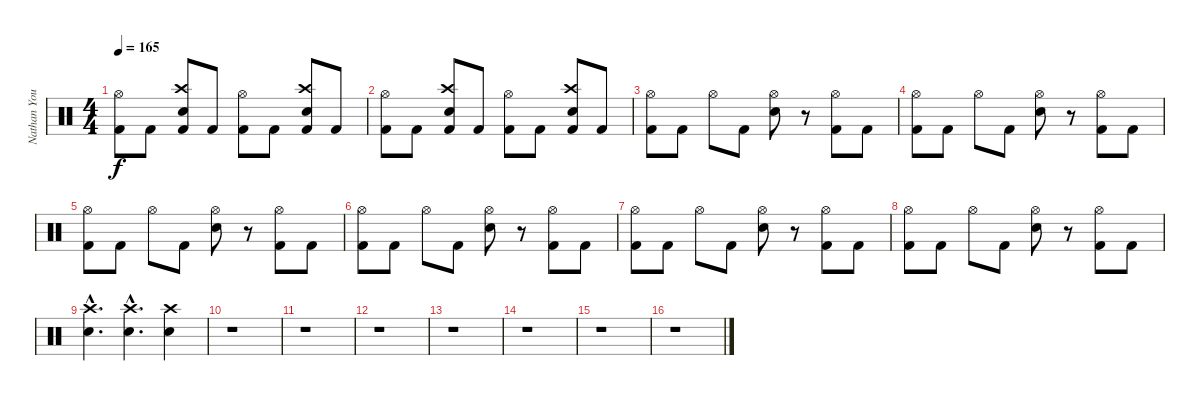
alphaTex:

\track ("Nathan Young" "Nathan You") {instrument percussion}
\staff {score}
\articulation defaults
\ts (4 4)
\tempo 165
\clef neutral
\ks c
("Hi-Hat (open)" "Kick (hit) 2").8{dy f} "Kick (hit) 2".8 ("Crash high (hit)" "Snare (hit) 2" "Kick (hit) 2").8 "Kick (hit) 2".8 ("Hi-Hat (open)" "Kick (hit) 2").8 "Kick (hit) 2".8 ("Crash high (hit)" "Snare (hit) 2" "Kick (hit) 2").8 "Kick (hit) 2".8 |
("Hi-Hat (open)" "Kick (hit) 2").8 "Kick (hit) 2".8 ("Crash high (hit)" "Snare (hit) 2" "Kick (hit) 2").8 "Kick (hit) 2".8 ("Hi-Hat (open)" "Kick (hit) 2").8 "Kick (hit) 2".8 ("Crash high (hit)" "Snare (hit) 2" "Kick (hit) 2").8 "Kick (hit) 2".8 |
("Hi-Hat (open)" "Kick (hit) 2").8 "Kick (hit) 2".8 "Hi-Hat (open)".8 "Kick (hit) 2".8 ("Hi-Hat (open)" "Snare (hit) 2").8 r.8 ("Hi-Hat (open)" "Kick (hit) 2").8 "Kick (hit) 2".8 |
("Hi-Hat (open)" "Kick (hit) 2").8 "Kick (hit) 2".8 "Hi-Hat (open)".8 "Kick (hit) 2".8 ("Hi-Hat (open)" "Snare (hit) 2").8 r.8 ("Hi-Hat (open)" "Kick (hit) 2").8 "Kick (hit) 2".8 |
("Hi-Hat (open)" "Kick (hit) 2").8 "Kick (hit) 2".8 "Hi-Hat (open)".8 "Kick (hit) 2".8 ("Hi-Hat (open)" "Snare (hit) 2").8 r.8 ("Hi-Hat (open)" "Kick (hit) 2").8 "Kick (hit) 2".8 |
("Hi-Hat (open)" "Kick (hit) 2").8 "Kick (hit) 2".8 "Hi-Hat (open)".8 "Kick (hit) 2".8 ("Hi-Hat (open)" "Snare (hit) 2").8 r.8 ("Hi-Hat (open)" "Kick (hit) 2").8 "Kick (hit) 2".8 |
("Hi-Hat (open)" "Kick (hit) 2").8 "Kick (hit) 2".8 "Hi-Hat (open)".8 "Kick (hit) 2".8 ("Hi-Hat (open)" "Snare (hit) 2").8 r.8 ("Hi-Hat (open)" "Kick (hit) 2").8 "Kick (hit) 2".8 |
("Hi-Hat (open)" "Kick (hit) 2").8 "Kick (hit) 2".8 "Hi-Hat (open)".8 "Kick (hit) 2".8 ("Hi-Hat (open)" "Snare (hit) 2").8 r.8 ("Hi-Hat (open)" "Kick (hit) 2").8 "Kick (hit) 2".8 |
("Crash high (hit)"{hac} "Snare (hit) 2"{hac}).4{d} ("Crash high (hit)"{hac} "Snare (hit) 2"{hac}).4{d} ("Crash high (hit)" "Snare (hit) 2").4 |
r.1 |
r.1 |
r.1 |
r.1 |
r.1 |
r.1 |
r.1
